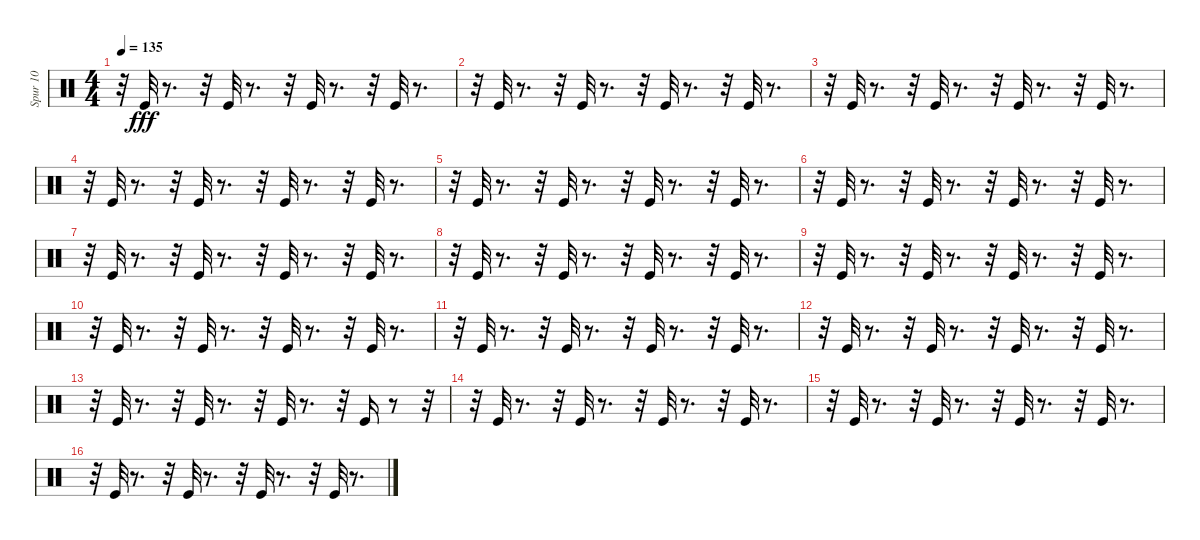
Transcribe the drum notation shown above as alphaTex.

\track ("Spur 10" "Spur 10") {instrument percussion}
\staff {score}
\articulation defaults
\ts (4 4)
\tempo 135
\clef neutral
\ks c
r.32{dy fff} "Kick (hit)".32 r.8{d} r.32 "Kick (hit)".32 r.8{d} r.32 "Kick (hit)".32 r.8{d} r.32 "Kick (hit)".32 r.8{d} |
r.32 "Kick (hit)".32 r.8{d} r.32 "Kick (hit)".32 r.8{d} r.32 "Kick (hit)".32 r.8{d} r.32 "Kick (hit)".32 r.8{d} |
r.32 "Kick (hit)".32 r.8{d} r.32 "Kick (hit)".32 r.8{d} r.32 "Kick (hit)".32 r.8{d} r.32 "Kick (hit)".32 r.8{d} |
r.32 "Kick (hit)".32 r.8{d} r.32 "Kick (hit)".32 r.8{d} r.32 "Kick (hit)".32 r.8{d} r.32 "Kick (hit)".32 r.8{d} |
r.32 "Kick (hit)".32 r.8{d} r.32 "Kick (hit)".32 r.8{d} r.32 "Kick (hit)".32 r.8{d} r.32 "Kick (hit)".32 r.8{d} |
r.32 "Kick (hit)".32 r.8{d} r.32 "Kick (hit)".32 r.8{d} r.32 "Kick (hit)".32 r.8{d} r.32 "Kick (hit)".32 r.8{d} |
r.32 "Kick (hit)".32 r.8{d} r.32 "Kick (hit)".32 r.8{d} r.32 "Kick (hit)".32 r.8{d} r.32 "Kick (hit)".32 r.8{d} |
r.32 "Kick (hit)".32 r.8{d} r.32 "Kick (hit)".32 r.8{d} r.32 "Kick (hit)".32 r.8{d} r.32 "Kick (hit)".32 r.8{d} |
r.32 "Kick (hit)".32 r.8{d} r.32 "Kick (hit)".32 r.8{d} r.32 "Kick (hit)".32 r.8{d} r.32 "Kick (hit)".32 r.8{d} |
r.32 "Kick (hit)".32 r.8{d} r.32 "Kick (hit)".32 r.8{d} r.32 "Kick (hit)".32 r.8{d} r.32 "Kick (hit)".32 r.8{d} |
r.32 "Kick (hit)".32 r.8{d} r.32 "Kick (hit)".32 r.8{d} r.32 "Kick (hit)".32 r.8{d} r.32 "Kick (hit)".32 r.8{d} |
r.32 "Kick (hit)".32 r.8{d} r.32 "Kick (hit)".32 r.8{d} r.32 "Kick (hit)".32 r.8{d} r.32 "Kick (hit)".32 r.8{d} |
r.32 "Kick (hit)".32 r.8{d} r.32 "Kick (hit)".32 r.8{d} r.32 "Kick (hit)".32 r.8{d} r.32 "Kick (hit)".16 r.8 r.32 |
r.32 "Kick (hit)".32 r.8{d} r.32 "Kick (hit)".32 r.8{d} r.32 "Kick (hit)".32 r.8{d} r.32 "Kick (hit)".32 r.8{d} |
r.32 "Kick (hit)".32 r.8{d} r.32 "Kick (hit)".32 r.8{d} r.32 "Kick (hit)".32 r.8{d} r.32 "Kick (hit)".32 r.8{d} |
r.32 "Kick (hit)".32 r.8{d} r.32 "Kick (hit)".32 r.8{d} r.32 "Kick (hit)".32 r.8{d} r.32 "Kick (hit)".32 r.8{d}
